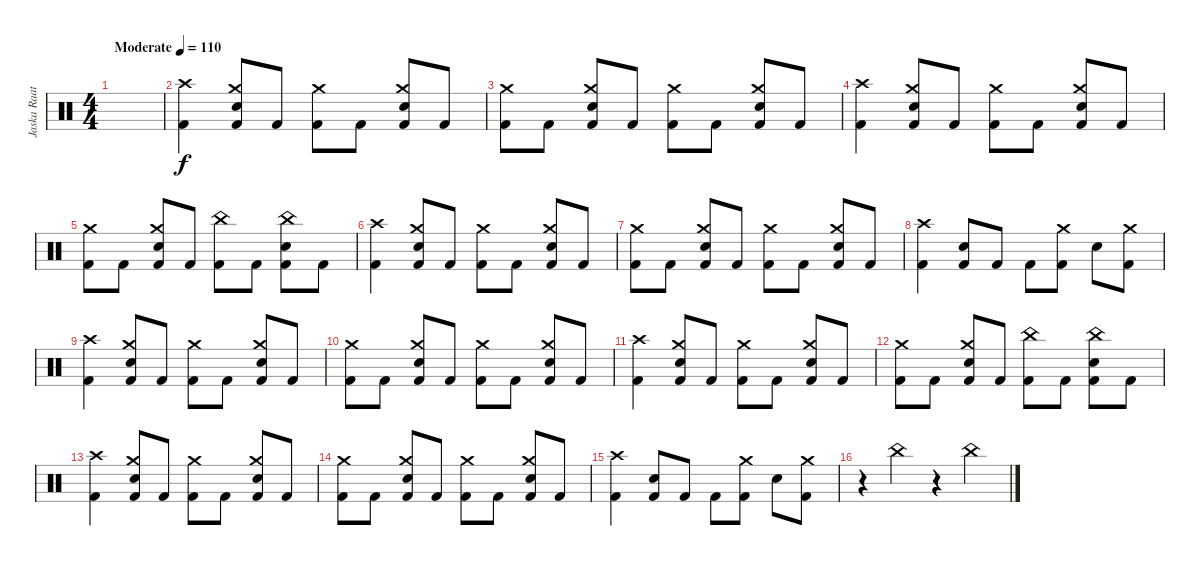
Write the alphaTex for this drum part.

\track ("Jaska Raatikainen" "Jaska Raat") {instrument percussion}
\staff {score}
\articulation defaults
\ts (4 4)
\tempo (110 "Moderate")
\clef neutral
\ks c
|
("Crash high (hit)" "Kick (hit) 2").4 ("Crash medium (hit)" "Snare (hit) 2" "Kick (hit) 2").8 "Kick (hit) 2".8 ("Crash medium (hit)" "Kick (hit) 2").8 "Kick (hit) 2".8 ("Crash medium (hit)" "Snare (hit) 2" "Kick (hit) 2").8 "Kick (hit) 2".8 |
("Crash medium (hit)" "Kick (hit) 2").8 "Kick (hit) 2".8 ("Crash medium (hit)" "Snare (hit) 2" "Kick (hit) 2").8 "Kick (hit) 2".8 ("Crash medium (hit)" "Kick (hit) 2").8 "Kick (hit) 2".8 ("Crash medium (hit)" "Snare (hit) 2" "Kick (hit) 2").8 "Kick (hit) 2".8 |
("Crash high (hit)" "Kick (hit) 2").4 ("Crash medium (hit)" "Snare (hit) 2" "Kick (hit) 2").8 "Kick (hit) 2".8 ("Crash medium (hit)" "Kick (hit) 2").8 "Kick (hit) 2".8 ("Crash medium (hit)" "Snare (hit) 2" "Kick (hit) 2").8 "Kick (hit) 2".8 |
("Crash medium (hit)" "Kick (hit) 2").8 "Kick (hit) 2".8 ("Crash medium (hit)" "Snare (hit) 2" "Kick (hit) 2").8 "Kick (hit) 2".8 ("China (hit)" "Kick (hit) 2").8 "Kick (hit) 2".8 ("China (hit)" "Snare (hit) 2" "Kick (hit) 2").8 "Kick (hit) 2".8 |
("Crash high (hit)" "Kick (hit) 2").4 ("Crash medium (hit)" "Snare (hit) 2" "Kick (hit) 2").8 "Kick (hit) 2".8 ("Crash medium (hit)" "Kick (hit) 2").8 "Kick (hit) 2".8 ("Crash medium (hit)" "Snare (hit) 2" "Kick (hit) 2").8 "Kick (hit) 2".8 |
("Crash medium (hit)" "Kick (hit) 2").8 "Kick (hit) 2".8 ("Crash medium (hit)" "Snare (hit) 2" "Kick (hit) 2").8 "Kick (hit) 2".8 ("Crash medium (hit)" "Kick (hit) 2").8 "Kick (hit) 2".8 ("Crash medium (hit)" "Snare (hit) 2" "Kick (hit) 2").8 "Kick (hit) 2".8 |
("Crash high (hit)" "Kick (hit) 2").4 ("Snare (hit) 2" "Kick (hit) 2").8 "Kick (hit) 2".8 "Kick (hit) 2".8 ("Crash medium (hit)" "Kick (hit) 2").8 "Snare (hit) 2".8 ("Crash medium (hit)" "Kick (hit) 2").8 |
("Crash high (hit)" "Kick (hit) 2").4 ("Crash medium (hit)" "Snare (hit) 2" "Kick (hit) 2").8 "Kick (hit) 2".8 ("Crash medium (hit)" "Kick (hit) 2").8 "Kick (hit) 2".8 ("Crash medium (hit)" "Snare (hit) 2" "Kick (hit) 2").8 "Kick (hit) 2".8 |
("Crash medium (hit)" "Kick (hit) 2").8 "Kick (hit) 2".8 ("Crash medium (hit)" "Snare (hit) 2" "Kick (hit) 2").8 "Kick (hit) 2".8 ("Crash medium (hit)" "Kick (hit) 2").8 "Kick (hit) 2".8 ("Crash medium (hit)" "Snare (hit) 2" "Kick (hit) 2").8 "Kick (hit) 2".8 |
("Crash high (hit)" "Kick (hit) 2").4 ("Crash medium (hit)" "Snare (hit) 2" "Kick (hit) 2").8 "Kick (hit) 2".8 ("Crash medium (hit)" "Kick (hit) 2").8 "Kick (hit) 2".8 ("Crash medium (hit)" "Snare (hit) 2" "Kick (hit) 2").8 "Kick (hit) 2".8 |
("Crash medium (hit)" "Kick (hit) 2").8 "Kick (hit) 2".8 ("Crash medium (hit)" "Snare (hit) 2" "Kick (hit) 2").8 "Kick (hit) 2".8 ("China (hit)" "Kick (hit) 2").8 "Kick (hit) 2".8 ("China (hit)" "Snare (hit) 2" "Kick (hit) 2").8 "Kick (hit) 2".8 |
("Crash high (hit)" "Kick (hit) 2").4 ("Crash medium (hit)" "Snare (hit) 2" "Kick (hit) 2").8 "Kick (hit) 2".8 ("Crash medium (hit)" "Kick (hit) 2").8 "Kick (hit) 2".8 ("Crash medium (hit)" "Snare (hit) 2" "Kick (hit) 2").8 "Kick (hit) 2".8 |
("Crash medium (hit)" "Kick (hit) 2").8 "Kick (hit) 2".8 ("Crash medium (hit)" "Snare (hit) 2" "Kick (hit) 2").8 "Kick (hit) 2".8 ("Crash medium (hit)" "Kick (hit) 2").8 "Kick (hit) 2".8 ("Crash medium (hit)" "Snare (hit) 2" "Kick (hit) 2").8 "Kick (hit) 2".8 |
("Crash high (hit)" "Kick (hit) 2").4 ("Snare (hit) 2" "Kick (hit) 2").8 "Kick (hit) 2".8 "Kick (hit) 2".8 ("Crash medium (hit)" "Kick (hit) 2").8 "Snare (hit) 2".8 ("Crash medium (hit)" "Kick (hit) 2").8 |
r.4 "China (hit)".4 r.4 "China (hit)".4
